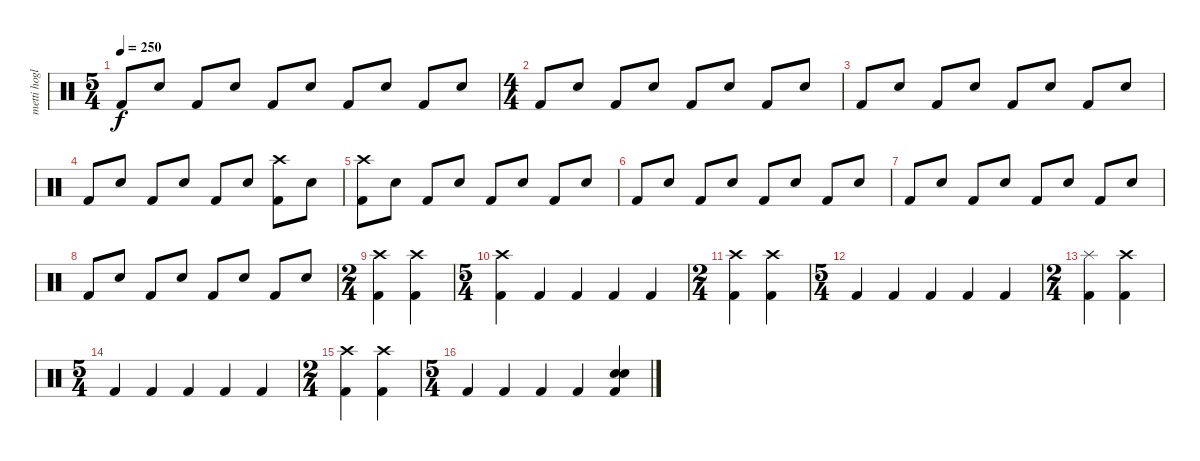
\track ("metti hoglan" "metti hogl") {instrument percussion}
\staff {score}
\articulation defaults
\ts (5 4)
\tempo 250
\clef neutral
\ks c "Kick (hit) 2".8{dy f} "Snare (hit) 2".8 "Kick (hit) 2".8 "Snare (hit) 2".8 "Kick (hit) 2".8 "Snare (hit) 2".8 "Kick (hit) 2".8 "Snare (hit) 2".8 "Kick (hit) 2".8 "Snare (hit) 2".8
|
\ts (4 4)
"Kick (hit) 2".8 "Snare (hit) 2".8 "Kick (hit) 2".8 "Snare (hit) 2".8 "Kick (hit) 2".8 "Snare (hit) 2".8 "Kick (hit) 2".8 "Snare (hit) 2".8 |
"Kick (hit) 2".8 "Snare (hit) 2".8 "Kick (hit) 2".8 "Snare (hit) 2".8 "Kick (hit) 2".8 "Snare (hit) 2".8 "Kick (hit) 2".8 "Snare (hit) 2".8 |
"Kick (hit) 2".8 "Snare (hit) 2".8 "Kick (hit) 2".8 "Snare (hit) 2".8 "Kick (hit) 2".8 "Snare (hit) 2".8 ("Crash high (hit)" "Kick (hit) 2").8 "Snare (hit) 2".8 |
("Crash high (hit)" "Kick (hit) 2").8 "Snare (hit) 2".8 "Kick (hit) 2".8 "Snare (hit) 2".8 "Kick (hit) 2".8 "Snare (hit) 2".8 "Kick (hit) 2".8 "Snare (hit) 2".8 |
"Kick (hit) 2".8 "Snare (hit) 2".8 "Kick (hit) 2".8 "Snare (hit) 2".8 "Kick (hit) 2".8 "Snare (hit) 2".8 "Kick (hit) 2".8 "Snare (hit) 2".8 |
"Kick (hit) 2".8 "Snare (hit) 2".8 "Kick (hit) 2".8 "Snare (hit) 2".8 "Kick (hit) 2".8 "Snare (hit) 2".8 "Kick (hit) 2".8 "Snare (hit) 2".8 |
"Kick (hit) 2".8 "Snare (hit) 2".8 "Kick (hit) 2".8 "Snare (hit) 2".8 "Kick (hit) 2".8 "Snare (hit) 2".8 "Kick (hit) 2".8 "Snare (hit) 2".8 |
\ts (2 4)
("Crash high (hit)" "Kick (hit) 2").4 ("Crash high (hit)" "Kick (hit) 2").4 |
\ts (5 4)
("Crash high (hit)" "Kick (hit) 2").4 "Kick (hit) 2".4 "Kick (hit) 2".4 "Kick (hit) 2".4 "Kick (hit) 2".4 |
\ts (2 4)
("Crash high (hit)" "Kick (hit) 2").4 ("Crash high (hit)" "Kick (hit) 2").4 |
\ts (5 4)
"Kick (hit) 2".4 "Kick (hit) 2".4 "Kick (hit) 2".4 "Kick (hit) 2".4 "Kick (hit) 2".4 |
\ts (2 4)
("Splash (hit)" "Kick (hit) 2").4 ("Crash high (hit)" "Kick (hit) 2").4 |
\ts (5 4)
"Kick (hit) 2".4 "Kick (hit) 2".4 "Kick (hit) 2".4 "Kick (hit) 2".4 "Kick (hit) 2".4 |
\ts (2 4)
("Crash high (hit)" "Kick (hit) 2").4 ("Crash high (hit)" "Kick (hit) 2").4 |
\ts (5 4)
"Kick (hit) 2".4 "Kick (hit) 2".4 "Kick (hit) 2".4 "Kick (hit) 2".4 ("Snare (hit) 2" "Snare (hit) 2" "Kick (hit) 2").4
